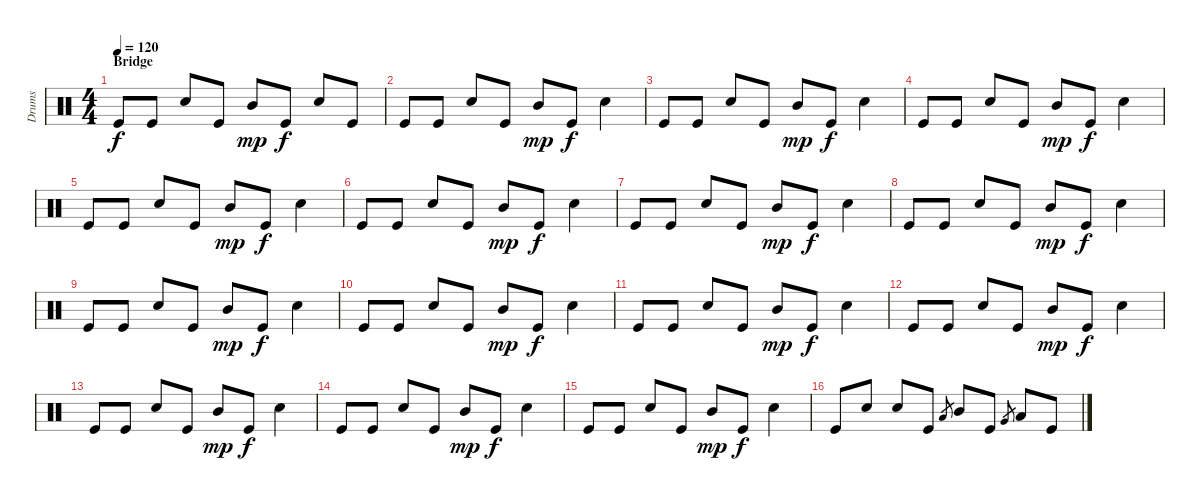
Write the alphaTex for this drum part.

\track ("Drums" "Drums") {instrument percussion}
\staff {score}
\articulation defaults
\ts (4 4)
\section ("" "Bridge")
\tempo 120
\clef neutral
\ks c "Kick (hit)".8{dy f} "Kick (hit)".8 "Electric Snare (hit)".8 "Kick (hit)".8 "Mid Tom (hit)".8{dy mp} "Kick (hit)".8{dy f} "Electric Snare (hit)".8 "Kick (hit)".8
|
"Kick (hit)".8 "Kick (hit)".8 "Electric Snare (hit)".8 "Kick (hit)".8 "Mid Tom (hit)".8{dy mp} "Kick (hit)".8{dy f} "Electric Snare (hit)".4 |
"Kick (hit)".8 "Kick (hit)".8 "Electric Snare (hit)".8 "Kick (hit)".8 "Mid Tom (hit)".8{dy mp} "Kick (hit)".8{dy f} "Electric Snare (hit)".4 |
"Kick (hit)".8 "Kick (hit)".8 "Electric Snare (hit)".8 "Kick (hit)".8 "Mid Tom (hit)".8{dy mp} "Kick (hit)".8{dy f} "Electric Snare (hit)".4 |
"Kick (hit)".8 "Kick (hit)".8 "Electric Snare (hit)".8 "Kick (hit)".8 "Mid Tom (hit)".8{dy mp} "Kick (hit)".8{dy f} "Electric Snare (hit)".4 |
"Kick (hit)".8 "Kick (hit)".8 "Electric Snare (hit)".8 "Kick (hit)".8 "Mid Tom (hit)".8{dy mp} "Kick (hit)".8{dy f} "Electric Snare (hit)".4 |
"Kick (hit)".8 "Kick (hit)".8 "Electric Snare (hit)".8 "Kick (hit)".8 "Mid Tom (hit)".8{dy mp} "Kick (hit)".8{dy f} "Electric Snare (hit)".4 |
"Kick (hit)".8 "Kick (hit)".8 "Electric Snare (hit)".8 "Kick (hit)".8 "Mid Tom (hit)".8{dy mp} "Kick (hit)".8{dy f} "Electric Snare (hit)".4 |
"Kick (hit)".8 "Kick (hit)".8 "Electric Snare (hit)".8 "Kick (hit)".8 "Mid Tom (hit)".8{dy mp} "Kick (hit)".8{dy f} "Electric Snare (hit)".4 |
"Kick (hit)".8 "Kick (hit)".8 "Electric Snare (hit)".8 "Kick (hit)".8 "Mid Tom (hit)".8{dy mp} "Kick (hit)".8{dy f} "Electric Snare (hit)".4 |
"Kick (hit)".8 "Kick (hit)".8 "Electric Snare (hit)".8 "Kick (hit)".8 "Mid Tom (hit)".8{dy mp} "Kick (hit)".8{dy f} "Electric Snare (hit)".4 |
"Kick (hit)".8 "Kick (hit)".8 "Electric Snare (hit)".8 "Kick (hit)".8 "Mid Tom (hit)".8{dy mp} "Kick (hit)".8{dy f} "Electric Snare (hit)".4 |
"Kick (hit)".8 "Kick (hit)".8 "Electric Snare (hit)".8 "Kick (hit)".8 "Mid Tom (hit)".8{dy mp} "Kick (hit)".8{dy f} "Electric Snare (hit)".4 |
"Kick (hit)".8 "Kick (hit)".8 "Electric Snare (hit)".8 "Kick (hit)".8 "Mid Tom (hit)".8{dy mp} "Kick (hit)".8{dy f} "Electric Snare (hit)".4 |
"Kick (hit)".8 "Kick (hit)".8 "Electric Snare (hit)".8 "Kick (hit)".8 "Mid Tom (hit)".8{dy mp} "Kick (hit)".8{dy f} "Electric Snare (hit)".4 |
"Kick (hit)".8 "Electric Snare (hit)".8 "Electric Snare (hit)".8 "Kick (hit)".8 "Low Tom (hit)".8{gr} "Mid Tom (hit)".8 "Kick (hit)".8 "Very Low Tom (hit)".8{gr} "Low Tom (hit)".8 "Kick (hit)".8
